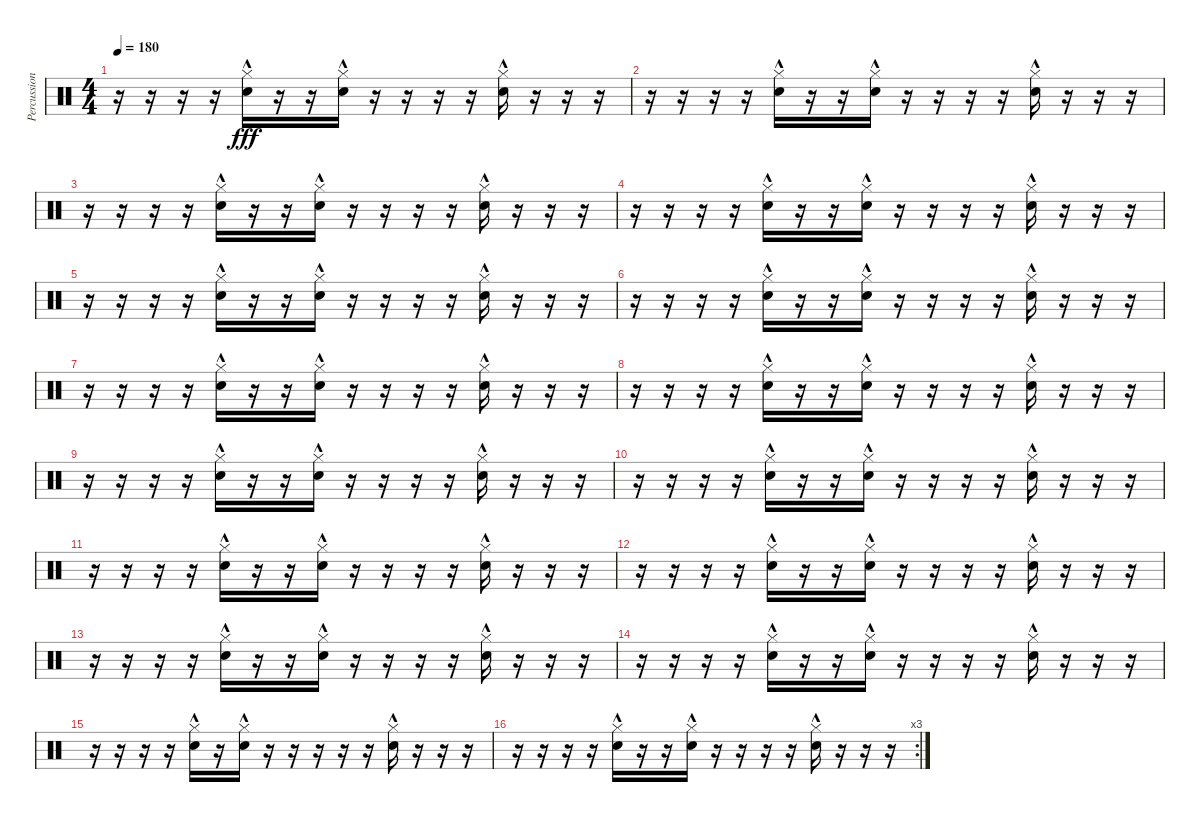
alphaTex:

\track ("Percussion" "Percussion") {instrument percussion bank 2}
\staff {score}
\articulation defaults
\ts (4 4)
\tempo 180
\clef neutral
\ks c
r.16{dy fff} r.16 r.16 r.16 ("Hi-Hat (closed)"{hac} "Snare (hit) 2").16 r.16 r.16 ("Hi-Hat (closed)"{hac} "Snare (hit) 2").16 r.16 r.16 r.16 r.16 ("Hi-Hat (closed)"{hac} "Snare (hit) 2").16 r.16 r.16 r.16 |
r.16 r.16 r.16 r.16 ("Hi-Hat (closed)"{hac} "Snare (hit) 2").16 r.16 r.16 ("Hi-Hat (closed)"{hac} "Snare (hit) 2").16 r.16 r.16 r.16 r.16 ("Hi-Hat (closed)"{hac} "Snare (hit) 2").16 r.16 r.16 r.16 |
r.16 r.16 r.16 r.16 ("Hi-Hat (closed)"{hac} "Snare (hit) 2").16 r.16 r.16 ("Hi-Hat (closed)"{hac} "Snare (hit) 2").16 r.16 r.16 r.16 r.16 ("Hi-Hat (closed)"{hac} "Snare (hit) 2").16 r.16 r.16 r.16 |
r.16 r.16 r.16 r.16 ("Hi-Hat (closed)"{hac} "Snare (hit) 2").16 r.16 r.16 ("Hi-Hat (closed)"{hac} "Snare (hit) 2").16 r.16 r.16 r.16 r.16 ("Hi-Hat (closed)"{hac} "Snare (hit) 2").16 r.16 r.16 r.16 |
r.16 r.16 r.16 r.16 ("Hi-Hat (closed)"{hac} "Snare (hit) 2").16 r.16 r.16 ("Hi-Hat (closed)"{hac} "Snare (hit) 2").16 r.16 r.16 r.16 r.16 ("Hi-Hat (closed)"{hac} "Snare (hit) 2").16 r.16 r.16 r.16 |
r.16 r.16 r.16 r.16 ("Hi-Hat (closed)"{hac} "Snare (hit) 2").16 r.16 r.16 ("Hi-Hat (closed)"{hac} "Snare (hit) 2").16 r.16 r.16 r.16 r.16 ("Hi-Hat (closed)"{hac} "Snare (hit) 2").16 r.16 r.16 r.16 |
r.16 r.16 r.16 r.16 ("Hi-Hat (closed)"{hac} "Snare (hit) 2").16 r.16 r.16 ("Hi-Hat (closed)"{hac} "Snare (hit) 2").16 r.16 r.16 r.16 r.16 ("Hi-Hat (closed)"{hac} "Snare (hit) 2").16 r.16 r.16 r.16 |
r.16 r.16 r.16 r.16 ("Hi-Hat (closed)"{hac} "Snare (hit) 2").16 r.16 r.16 ("Hi-Hat (closed)"{hac} "Snare (hit) 2").16 r.16 r.16 r.16 r.16 ("Hi-Hat (closed)"{hac} "Snare (hit) 2").16 r.16 r.16 r.16 |
r.16 r.16 r.16 r.16 ("Hi-Hat (closed)"{hac} "Snare (hit) 2").16 r.16 r.16 ("Hi-Hat (closed)"{hac} "Snare (hit) 2").16 r.16 r.16 r.16 r.16 ("Hi-Hat (closed)"{hac} "Snare (hit) 2").16 r.16 r.16 r.16 |
r.16 r.16 r.16 r.16 ("Hi-Hat (closed)"{hac} "Snare (hit) 2").16 r.16 r.16 ("Hi-Hat (closed)"{hac} "Snare (hit) 2").16 r.16 r.16 r.16 r.16 ("Hi-Hat (closed)"{hac} "Snare (hit) 2").16 r.16 r.16 r.16 |
r.16 r.16 r.16 r.16 ("Hi-Hat (closed)"{hac} "Snare (hit) 2").16 r.16 r.16 ("Hi-Hat (closed)"{hac} "Snare (hit) 2").16 r.16 r.16 r.16 r.16 ("Hi-Hat (closed)"{hac} "Snare (hit) 2").16 r.16 r.16 r.16 |
r.16 r.16 r.16 r.16 ("Hi-Hat (closed)"{hac} "Snare (hit) 2").16 r.16 r.16 ("Hi-Hat (closed)"{hac} "Snare (hit) 2").16 r.16 r.16 r.16 r.16 ("Hi-Hat (closed)"{hac} "Snare (hit) 2").16 r.16 r.16 r.16 |
r.16 r.16 r.16 r.16 ("Hi-Hat (closed)"{hac} "Snare (hit) 2").16 r.16 r.16 ("Hi-Hat (closed)"{hac} "Snare (hit) 2").16 r.16 r.16 r.16 r.16 ("Hi-Hat (closed)"{hac} "Snare (hit) 2").16 r.16 r.16 r.16 |
r.16 r.16 r.16 r.16 ("Hi-Hat (closed)"{hac} "Snare (hit) 2").16 r.16 r.16 ("Hi-Hat (closed)"{hac} "Snare (hit) 2").16 r.16 r.16 r.16 r.16 ("Hi-Hat (closed)"{hac} "Snare (hit) 2").16 r.16 r.16 r.16 |
r.16 r.16 r.16 r.16 ("Hi-Hat (closed)"{hac} "Snare (hit) 2").16 r.16 ("Hi-Hat (closed)"{hac} "Snare (hit) 2").16 r.16 r.16 r.16 r.16 r.16 ("Hi-Hat (closed)"{hac} "Snare (hit) 2").16 r.16 r.16 r.16 |
\rc 3
r.16 r.16 r.16 r.16 ("Hi-Hat (closed)"{hac} "Snare (hit) 2").16 r.16 r.16 ("Hi-Hat (closed)"{hac} "Snare (hit) 2").16 r.16 r.16 r.16 r.16 ("Hi-Hat (closed)"{hac} "Snare (hit) 2").16 r.16 r.16 r.16
